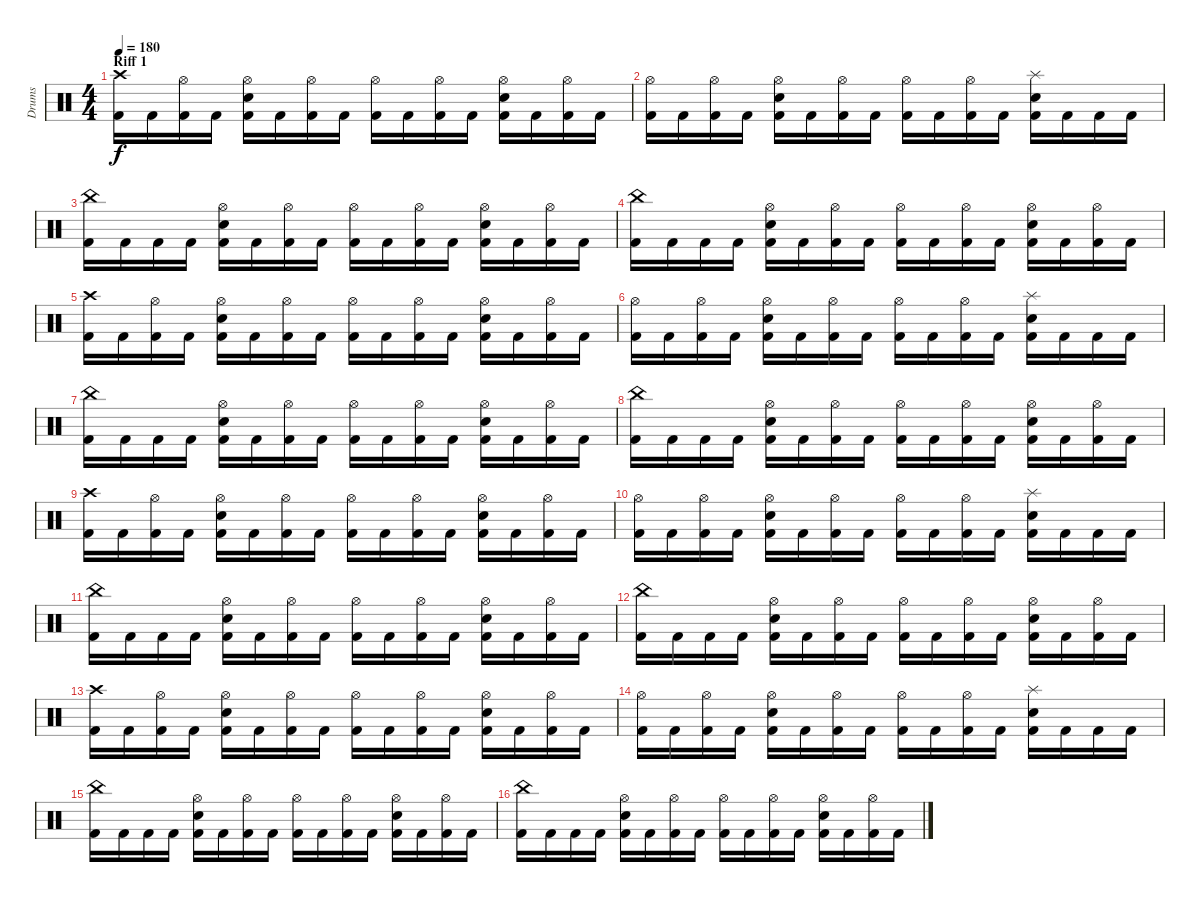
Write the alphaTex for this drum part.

\track ("Drums" "Drums") {instrument percussion}
\staff {score}
\articulation defaults
\ts (4 4)
\section ("" "Riff 1")
\tempo 180
\clef neutral
\ks c
("Kick (hit) 2" "Crash high (hit)").16{dy f} "Kick (hit) 2".16 ("Kick (hit) 2" "Hi-Hat (open)").16 "Kick (hit) 2".16 ("Kick (hit) 2" "Snare (hit) 2" "Hi-Hat (open)").16 "Kick (hit) 2".16 ("Kick (hit) 2" "Hi-Hat (open)").16 "Kick (hit) 2".16 ("Kick (hit) 2" "Hi-Hat (open)").16 "Kick (hit) 2".16 ("Kick (hit) 2" "Hi-Hat (open)").16 "Kick (hit) 2".16 ("Kick (hit) 2" "Snare (hit) 2" "Hi-Hat (open)").16 "Kick (hit) 2".16 ("Kick (hit) 2" "Hi-Hat (open)").16 "Kick (hit) 2".16 |
("Kick (hit) 2" "Hi-Hat (open)").16 "Kick (hit) 2".16 ("Kick (hit) 2" "Hi-Hat (open)").16 "Kick (hit) 2".16 ("Kick (hit) 2" "Snare (hit) 2" "Hi-Hat (open)").16 "Kick (hit) 2".16 ("Kick (hit) 2" "Hi-Hat (open)").16 "Kick (hit) 2".16 ("Kick (hit) 2" "Hi-Hat (open)").16 "Kick (hit) 2".16 ("Kick (hit) 2" "Hi-Hat (open)").16 "Kick (hit) 2".16 ("Kick (hit) 2" "Snare (hit) 2" "Splash (hit)").16 "Kick (hit) 2".16 "Kick (hit) 2".16 "Kick (hit) 2".16 |
("Kick (hit) 2" "China (hit)").16 "Kick (hit) 2".16 "Kick (hit) 2".16 "Kick (hit) 2".16 ("Kick (hit) 2" "Snare (hit) 2" "Hi-Hat (open)").16 "Kick (hit) 2".16 ("Kick (hit) 2" "Hi-Hat (open)").16 "Kick (hit) 2".16 ("Kick (hit) 2" "Hi-Hat (open)").16 "Kick (hit) 2".16 ("Kick (hit) 2" "Hi-Hat (open)").16 "Kick (hit) 2".16 ("Kick (hit) 2" "Snare (hit) 2" "Hi-Hat (open)").16 "Kick (hit) 2".16 ("Kick (hit) 2" "Hi-Hat (open)").16 "Kick (hit) 2".16 |
("Kick (hit) 2" "China (hit)").16 "Kick (hit) 2".16 "Kick (hit) 2".16 "Kick (hit) 2".16 ("Kick (hit) 2" "Snare (hit) 2" "Hi-Hat (open)").16 "Kick (hit) 2".16 ("Kick (hit) 2" "Hi-Hat (open)").16 "Kick (hit) 2".16 ("Kick (hit) 2" "Hi-Hat (open)").16 "Kick (hit) 2".16 ("Kick (hit) 2" "Hi-Hat (open)").16 "Kick (hit) 2".16 ("Kick (hit) 2" "Snare (hit) 2" "Hi-Hat (open)").16 "Kick (hit) 2".16 ("Kick (hit) 2" "Hi-Hat (open)").16 "Kick (hit) 2".16 |
("Kick (hit) 2" "Crash high (hit)").16 "Kick (hit) 2".16 ("Kick (hit) 2" "Hi-Hat (open)").16 "Kick (hit) 2".16 ("Kick (hit) 2" "Snare (hit) 2" "Hi-Hat (open)").16 "Kick (hit) 2".16 ("Kick (hit) 2" "Hi-Hat (open)").16 "Kick (hit) 2".16 ("Kick (hit) 2" "Hi-Hat (open)").16 "Kick (hit) 2".16 ("Kick (hit) 2" "Hi-Hat (open)").16 "Kick (hit) 2".16 ("Kick (hit) 2" "Snare (hit) 2" "Hi-Hat (open)").16 "Kick (hit) 2".16 ("Kick (hit) 2" "Hi-Hat (open)").16 "Kick (hit) 2".16 |
("Kick (hit) 2" "Hi-Hat (open)").16 "Kick (hit) 2".16 ("Kick (hit) 2" "Hi-Hat (open)").16 "Kick (hit) 2".16 ("Kick (hit) 2" "Snare (hit) 2" "Hi-Hat (open)").16 "Kick (hit) 2".16 ("Kick (hit) 2" "Hi-Hat (open)").16 "Kick (hit) 2".16 ("Kick (hit) 2" "Hi-Hat (open)").16 "Kick (hit) 2".16 ("Kick (hit) 2" "Hi-Hat (open)").16 "Kick (hit) 2".16 ("Kick (hit) 2" "Snare (hit) 2" "Splash (hit)").16 "Kick (hit) 2".16 "Kick (hit) 2".16 "Kick (hit) 2".16 |
("Kick (hit) 2" "China (hit)").16 "Kick (hit) 2".16 "Kick (hit) 2".16 "Kick (hit) 2".16 ("Kick (hit) 2" "Snare (hit) 2" "Hi-Hat (open)").16 "Kick (hit) 2".16 ("Kick (hit) 2" "Hi-Hat (open)").16 "Kick (hit) 2".16 ("Kick (hit) 2" "Hi-Hat (open)").16 "Kick (hit) 2".16 ("Kick (hit) 2" "Hi-Hat (open)").16 "Kick (hit) 2".16 ("Kick (hit) 2" "Snare (hit) 2" "Hi-Hat (open)").16 "Kick (hit) 2".16 ("Kick (hit) 2" "Hi-Hat (open)").16 "Kick (hit) 2".16 |
("Kick (hit) 2" "China (hit)").16 "Kick (hit) 2".16 "Kick (hit) 2".16 "Kick (hit) 2".16 ("Kick (hit) 2" "Snare (hit) 2" "Hi-Hat (open)").16 "Kick (hit) 2".16 ("Kick (hit) 2" "Hi-Hat (open)").16 "Kick (hit) 2".16 ("Kick (hit) 2" "Hi-Hat (open)").16 "Kick (hit) 2".16 ("Kick (hit) 2" "Hi-Hat (open)").16 "Kick (hit) 2".16 ("Kick (hit) 2" "Snare (hit) 2" "Hi-Hat (open)").16 "Kick (hit) 2".16 ("Kick (hit) 2" "Hi-Hat (open)").16 "Kick (hit) 2".16 |
("Kick (hit) 2" "Crash high (hit)").16 "Kick (hit) 2".16 ("Kick (hit) 2" "Hi-Hat (open)").16 "Kick (hit) 2".16 ("Kick (hit) 2" "Snare (hit) 2" "Hi-Hat (open)").16 "Kick (hit) 2".16 ("Kick (hit) 2" "Hi-Hat (open)").16 "Kick (hit) 2".16 ("Kick (hit) 2" "Hi-Hat (open)").16 "Kick (hit) 2".16 ("Kick (hit) 2" "Hi-Hat (open)").16 "Kick (hit) 2".16 ("Kick (hit) 2" "Snare (hit) 2" "Hi-Hat (open)").16 "Kick (hit) 2".16 ("Kick (hit) 2" "Hi-Hat (open)").16 "Kick (hit) 2".16 |
("Kick (hit) 2" "Hi-Hat (open)").16 "Kick (hit) 2".16 ("Kick (hit) 2" "Hi-Hat (open)").16 "Kick (hit) 2".16 ("Kick (hit) 2" "Snare (hit) 2" "Hi-Hat (open)").16 "Kick (hit) 2".16 ("Kick (hit) 2" "Hi-Hat (open)").16 "Kick (hit) 2".16 ("Kick (hit) 2" "Hi-Hat (open)").16 "Kick (hit) 2".16 ("Kick (hit) 2" "Hi-Hat (open)").16 "Kick (hit) 2".16 ("Kick (hit) 2" "Snare (hit) 2" "Splash (hit)").16 "Kick (hit) 2".16 "Kick (hit) 2".16 "Kick (hit) 2".16 |
("Kick (hit) 2" "China (hit)").16 "Kick (hit) 2".16 "Kick (hit) 2".16 "Kick (hit) 2".16 ("Kick (hit) 2" "Snare (hit) 2" "Hi-Hat (open)").16 "Kick (hit) 2".16 ("Kick (hit) 2" "Hi-Hat (open)").16 "Kick (hit) 2".16 ("Kick (hit) 2" "Hi-Hat (open)").16 "Kick (hit) 2".16 ("Kick (hit) 2" "Hi-Hat (open)").16 "Kick (hit) 2".16 ("Kick (hit) 2" "Snare (hit) 2" "Hi-Hat (open)").16 "Kick (hit) 2".16 ("Kick (hit) 2" "Hi-Hat (open)").16 "Kick (hit) 2".16 |
("Kick (hit) 2" "China (hit)").16 "Kick (hit) 2".16 "Kick (hit) 2".16 "Kick (hit) 2".16 ("Kick (hit) 2" "Snare (hit) 2" "Hi-Hat (open)").16 "Kick (hit) 2".16 ("Kick (hit) 2" "Hi-Hat (open)").16 "Kick (hit) 2".16 ("Kick (hit) 2" "Hi-Hat (open)").16 "Kick (hit) 2".16 ("Kick (hit) 2" "Hi-Hat (open)").16 "Kick (hit) 2".16 ("Kick (hit) 2" "Snare (hit) 2" "Hi-Hat (open)").16 "Kick (hit) 2".16 ("Kick (hit) 2" "Hi-Hat (open)").16 "Kick (hit) 2".16 |
("Kick (hit) 2" "Crash high (hit)").16 "Kick (hit) 2".16 ("Kick (hit) 2" "Hi-Hat (open)").16 "Kick (hit) 2".16 ("Kick (hit) 2" "Snare (hit) 2" "Hi-Hat (open)").16 "Kick (hit) 2".16 ("Kick (hit) 2" "Hi-Hat (open)").16 "Kick (hit) 2".16 ("Kick (hit) 2" "Hi-Hat (open)").16 "Kick (hit) 2".16 ("Kick (hit) 2" "Hi-Hat (open)").16 "Kick (hit) 2".16 ("Kick (hit) 2" "Snare (hit) 2" "Hi-Hat (open)").16 "Kick (hit) 2".16 ("Kick (hit) 2" "Hi-Hat (open)").16 "Kick (hit) 2".16 |
("Kick (hit) 2" "Hi-Hat (open)").16 "Kick (hit) 2".16 ("Kick (hit) 2" "Hi-Hat (open)").16 "Kick (hit) 2".16 ("Kick (hit) 2" "Snare (hit) 2" "Hi-Hat (open)").16 "Kick (hit) 2".16 ("Kick (hit) 2" "Hi-Hat (open)").16 "Kick (hit) 2".16 ("Kick (hit) 2" "Hi-Hat (open)").16 "Kick (hit) 2".16 ("Kick (hit) 2" "Hi-Hat (open)").16 "Kick (hit) 2".16 ("Kick (hit) 2" "Snare (hit) 2" "Splash (hit)").16 "Kick (hit) 2".16 "Kick (hit) 2".16 "Kick (hit) 2".16 |
("Kick (hit) 2" "China (hit)").16 "Kick (hit) 2".16 "Kick (hit) 2".16 "Kick (hit) 2".16 ("Kick (hit) 2" "Snare (hit) 2" "Hi-Hat (open)").16 "Kick (hit) 2".16 ("Kick (hit) 2" "Hi-Hat (open)").16 "Kick (hit) 2".16 ("Kick (hit) 2" "Hi-Hat (open)").16 "Kick (hit) 2".16 ("Kick (hit) 2" "Hi-Hat (open)").16 "Kick (hit) 2".16 ("Kick (hit) 2" "Snare (hit) 2" "Hi-Hat (open)").16 "Kick (hit) 2".16 ("Kick (hit) 2" "Hi-Hat (open)").16 "Kick (hit) 2".16 |
("Kick (hit) 2" "China (hit)").16 "Kick (hit) 2".16 "Kick (hit) 2".16 "Kick (hit) 2".16 ("Kick (hit) 2" "Snare (hit) 2" "Hi-Hat (open)").16 "Kick (hit) 2".16 ("Kick (hit) 2" "Hi-Hat (open)").16 "Kick (hit) 2".16 ("Kick (hit) 2" "Hi-Hat (open)").16 "Kick (hit) 2".16 ("Kick (hit) 2" "Hi-Hat (open)").16 "Kick (hit) 2".16 ("Kick (hit) 2" "Snare (hit) 2" "Hi-Hat (open)").16 "Kick (hit) 2".16 ("Kick (hit) 2" "Hi-Hat (open)").16 "Kick (hit) 2".16
